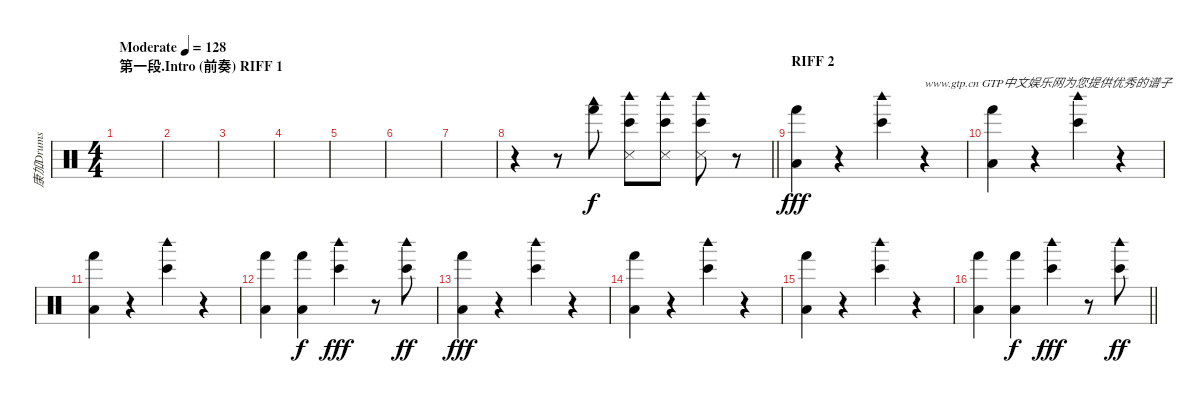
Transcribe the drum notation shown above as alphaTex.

\track ("康加Drums" "康加Drums") {instrument percussion}
\staff {score}
\articulation defaults
\ts (4 4)
\section ("" "第一段.Intro (前奏) RIFF 1")
\tempo (128 "Moderate")
\clef neutral
\ks c
|
|
|
|
|
|
|
\barLineRight lightlight
r.4 r.8 ("Hand (hit)" "Woodblock low (hit)").8 ("Bongo High (hit)" "Woodblock high (hit)" "Snare (side stick) 3").8 ("Bongo High (hit)" "Woodblock high (hit)" "Snare (side stick) 3").8 ("Bongo High (hit)" "Woodblock high (hit)" "Snare (side stick) 3").8 r.8 |
\section ("" "RIFF 2")
("Hand (hit)" "Low Floor Tom (hit)").4{dy fff} r.4 ("Bongo High (hit)" "Woodblock high (hit)").4 r.4{txt "www.gtp.cn GTP中文娱乐网为您提供优秀的谱子"} |
("Hand (hit)" "Low Floor Tom (hit)").4 r.4 ("Bongo High (hit)" "Woodblock high (hit)").4 r.4 |
("Hand (hit)" "Low Floor Tom (hit)").4 r.4 ("Bongo High (hit)" "Woodblock high (hit)").4 r.4 |
("Hand (hit)" "Low Floor Tom (hit)").4 ("Hand (hit)" "Low Floor Tom (hit)").4{dy f} ("Bongo High (hit)" "Woodblock high (hit)").4{dy fff} r.8 ("Bongo High (hit)" "Woodblock high (hit)").8{dy ff} |
("Hand (hit)" "Low Floor Tom (hit)").4{dy fff} r.4 ("Bongo High (hit)" "Woodblock high (hit)").4 r.4 |
("Hand (hit)" "Low Floor Tom (hit)").4 r.4 ("Bongo High (hit)" "Woodblock high (hit)").4 r.4 |
("Hand (hit)" "Low Floor Tom (hit)").4 r.4 ("Bongo High (hit)" "Woodblock high (hit)").4 r.4 |
\barLineRight lightlight
("Hand (hit)" "Low Floor Tom (hit)").4 ("Hand (hit)" "Low Floor Tom (hit)").4{dy f} ("Bongo High (hit)" "Woodblock high (hit)").4{dy fff} r.8 ("Bongo High (hit)" "Woodblock high (hit)").8{dy ff}
